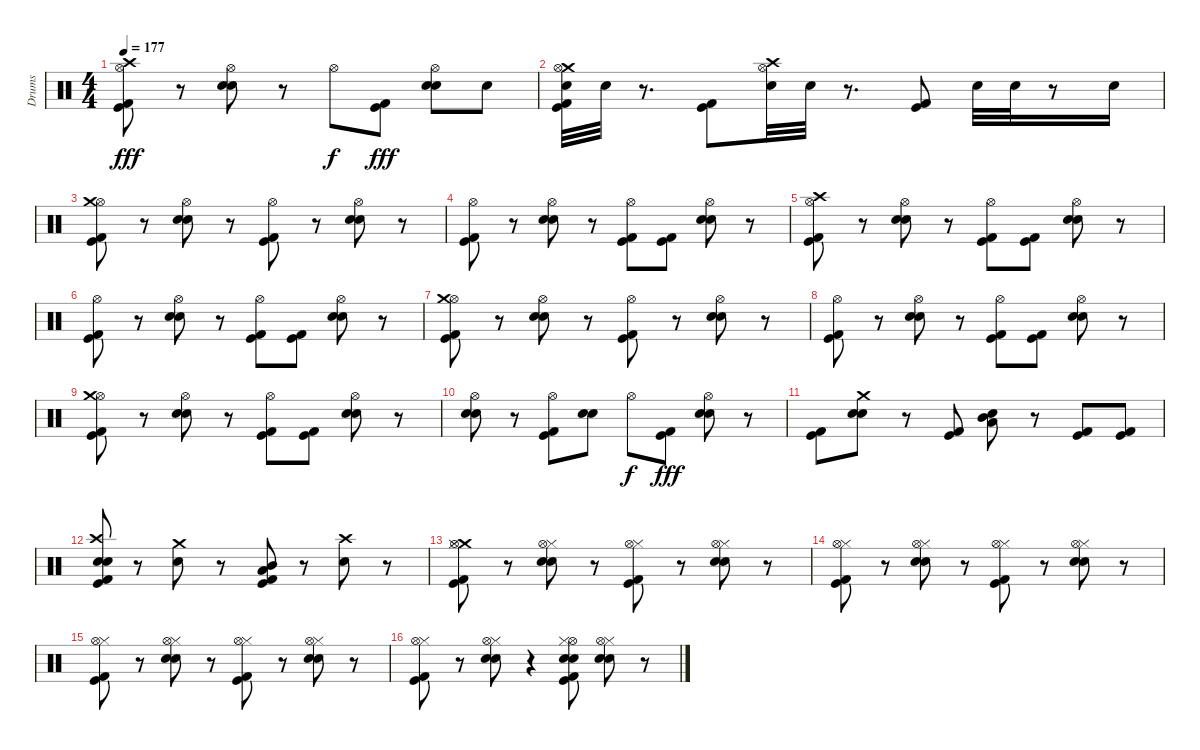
\track ("Drums" "Drums") {instrument percussion}
\staff {score}
\articulation defaults
\ts (4 4)
\tempo 177
\clef neutral
\ks c
("Hi-Hat (open)" "Kick (hit) 2" "Kick (hit)" "Crash high (hit)").8{dy fff} r.8 ("Hi-Hat (open)" "Snare (hit) 2" "Electric Snare (hit)").8 r.8 "Hi-Hat (open)".8{dy f} ("Kick (hit) 2" "Kick (hit)").8{dy fff} ("Hi-Hat (open)" "Electric Snare (hit)" "Snare (hit) 2").8 "Electric Snare (hit)".8 |
("Electric Snare (hit)" "Kick (hit) 2" "Kick (hit)" "Crash medium (hit)" "Hi-Hat (open)").32 "Electric Snare (hit)".32 r.8{d} ("Kick (hit) 2" "Kick (hit)").8 ("Electric Snare (hit)" "Crash high (hit)" "Hi-Hat (open)").32 "Electric Snare (hit)".32 r.8{d} ("Kick (hit) 2" "Kick (hit)").8 "Electric Snare (hit)".32 "Electric Snare (hit)".32 r.8 "Electric Snare (hit)".16 |
("Hi-Hat (open)" "Crash medium (hit)" "Kick (hit) 2" "Kick (hit)").8 r.8 ("Hi-Hat (open)" "Electric Snare (hit)" "Snare (hit) 2").8 r.8 ("Hi-Hat (open)" "Kick (hit) 2" "Kick (hit)").8 r.8 ("Hi-Hat (open)" "Electric Snare (hit)" "Snare (hit) 2").8 r.8 |
("Hi-Hat (open)" "Kick (hit) 2" "Kick (hit)").8 r.8 ("Hi-Hat (open)" "Electric Snare (hit)" "Snare (hit) 2").8 r.8 ("Hi-Hat (open)" "Kick (hit) 2" "Kick (hit)").8 ("Kick (hit)" "Kick (hit) 2").8 ("Hi-Hat (open)" "Electric Snare (hit)" "Snare (hit) 2").8 r.8 |
("Hi-Hat (open)" "Kick (hit) 2" "Kick (hit)" "Crash high (hit)").8 r.8 ("Hi-Hat (open)" "Electric Snare (hit)" "Snare (hit) 2").8 r.8 ("Hi-Hat (open)" "Kick (hit) 2" "Kick (hit)").8 ("Kick (hit) 2" "Kick (hit)").8 ("Hi-Hat (open)" "Electric Snare (hit)" "Snare (hit) 2").8 r.8 |
("Hi-Hat (open)" "Kick (hit) 2" "Kick (hit)").8 r.8 ("Hi-Hat (open)" "Electric Snare (hit)" "Snare (hit) 2").8 r.8 ("Hi-Hat (open)" "Kick (hit) 2" "Kick (hit)").8 ("Kick (hit) 2" "Kick (hit)").8 ("Hi-Hat (open)" "Electric Snare (hit)" "Snare (hit) 2").8 r.8 |
("Hi-Hat (open)" "Crash medium (hit)" "Kick (hit) 2" "Kick (hit)").8 r.8 ("Hi-Hat (open)" "Electric Snare (hit)" "Snare (hit) 2").8 r.8 ("Hi-Hat (open)" "Kick (hit) 2" "Kick (hit)").8 r.8 ("Hi-Hat (open)" "Electric Snare (hit)" "Snare (hit) 2").8 r.8 |
("Hi-Hat (open)" "Kick (hit) 2" "Kick (hit)").8 r.8 ("Hi-Hat (open)" "Electric Snare (hit)" "Snare (hit) 2").8 r.8 ("Hi-Hat (open)" "Kick (hit) 2" "Kick (hit)").8 ("Kick (hit)" "Kick (hit) 2").8 ("Hi-Hat (open)" "Electric Snare (hit)" "Snare (hit) 2").8 r.8 |
("Hi-Hat (open)" "Kick (hit) 2" "Kick (hit)" "Crash medium (hit)").8 r.8 ("Hi-Hat (open)" "Electric Snare (hit)" "Snare (hit) 2").8 r.8 ("Hi-Hat (open)" "Kick (hit) 2" "Kick (hit)").8 ("Kick (hit) 2" "Kick (hit)").8 ("Hi-Hat (open)" "Electric Snare (hit)" "Snare (hit) 2").8 r.8 |
("Hi-Hat (open)" "Electric Snare (hit)" "Snare (hit) 2").8 r.8 ("Hi-Hat (open)" "Kick (hit) 2" "Kick (hit)").8 ("Electric Snare (hit)" "Snare (hit) 2").8 "Hi-Hat (open)".8{dy f} ("Kick (hit) 2" "Kick (hit)").8{dy fff} ("Hi-Hat (open)" "Electric Snare (hit)" "Snare (hit) 2").8 r.8 |
("Kick (hit) 2" "Kick (hit)").8 ("Electric Snare (hit)" "Snare (hit) 2" "Crash medium (hit)").8 r.8 ("Kick (hit) 2" "Kick (hit)").8 ("Electric Snare (hit)" "Low Tom (hit)" "Mid Tom (hit)").8 r.8 ("Kick (hit) 2" "Kick (hit)").8 ("Kick (hit) 2" "Kick (hit)").8 |
("Crash high (hit)" "Snare (hit) 2" "Electric Snare (hit)" "Kick (hit) 2" "Kick (hit)").8 r.8 ("Crash medium (hit)" "Snare (hit) 2").8 r.8 ("Mid Tom (hit)" "Low Tom (hit)" "Kick (hit) 2" "Kick (hit)").8 r.8 ("Crash high (hit)" "Electric Snare (hit)").8 r.8 |
("Crash medium (hit)" "Kick (hit) 2" "Kick (hit)" "Hi-Hat (closed)" "Hi-Hat (open)").8 r.8 ("Electric Snare (hit)" "Snare (hit) 2" "Hi-Hat (closed)" "Hi-Hat (open)").8 r.8 ("Kick (hit) 2" "Kick (hit)" "Hi-Hat (closed)" "Hi-Hat (open)").8 r.8 ("Electric Snare (hit)" "Snare (hit) 2" "Hi-Hat (closed)" "Hi-Hat (open)").8 r.8 |
("Kick (hit) 2" "Kick (hit)" "Hi-Hat (closed)" "Hi-Hat (open)").8 r.8 ("Electric Snare (hit)" "Snare (hit) 2" "Hi-Hat (closed)" "Hi-Hat (open)").8 r.8 ("Kick (hit) 2" "Kick (hit)" "Hi-Hat (closed)" "Hi-Hat (open)").8 r.8 ("Electric Snare (hit)" "Snare (hit) 2" "Hi-Hat (closed)" "Hi-Hat (open)").8 r.8 |
("Kick (hit) 2" "Kick (hit)" "Hi-Hat (closed)" "Hi-Hat (open)").8 r.8 ("Electric Snare (hit)" "Snare (hit) 2" "Hi-Hat (closed)" "Hi-Hat (open)").8 r.8 ("Kick (hit) 2" "Kick (hit)" "Hi-Hat (closed)" "Hi-Hat (open)").8 r.8 ("Electric Snare (hit)" "Snare (hit) 2" "Hi-Hat (closed)" "Hi-Hat (open)").8 r.8 |
("Kick (hit) 2" "Kick (hit)" "Hi-Hat (closed)" "Hi-Hat (open)").8 r.8 ("Hi-Hat (closed)" "Electric Snare (hit)" "Snare (hit) 2" "Hi-Hat (open)").8 r.4 ("Electric Snare (hit)" "Hi-Hat (open)" "Hi-Hat (closed)" "Kick (hit) 2" "Kick (hit)" "Snare (hit) 2").8 ("Hi-Hat (closed)" "Electric Snare (hit)" "Snare (hit) 2" "Hi-Hat (open)").8 r.8
